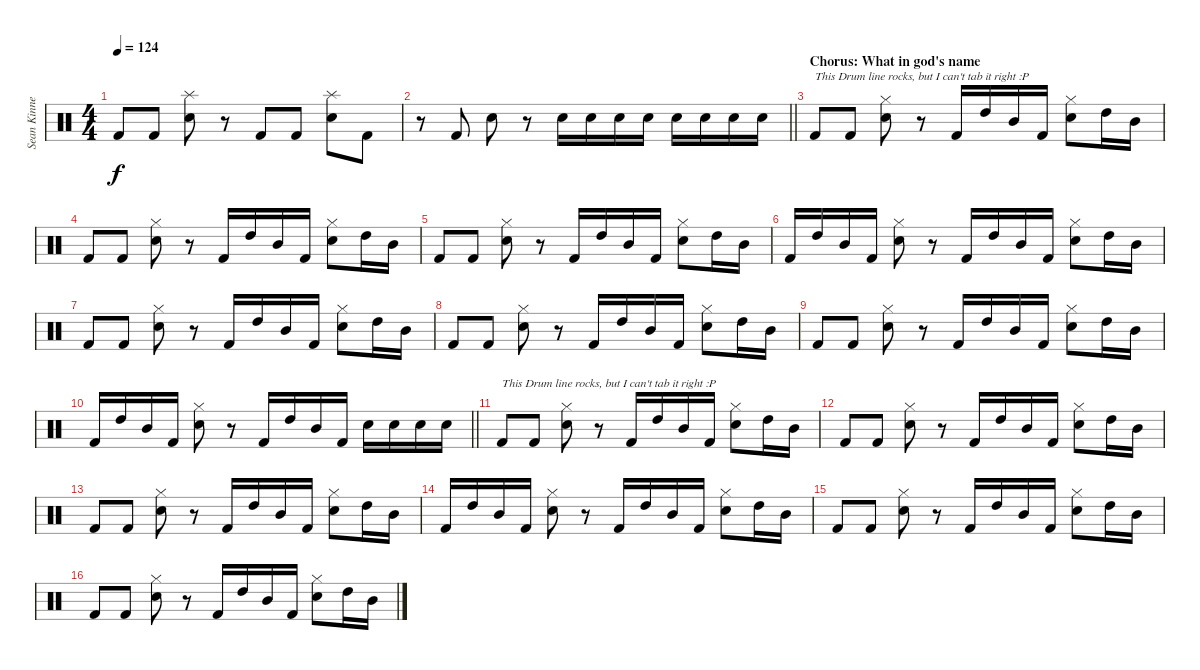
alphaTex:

\track ("Sean Kinney" "Sean Kinne") {instrument percussion}
\staff {score}
\articulation defaults
\ts (4 4)
\tempo 124
\clef neutral
\ks c "Kick (hit) 2".8{dy f} "Kick (hit) 2".8
("Splash (hit)" "Snare (hit) 2").8 r.8 "Kick (hit) 2".8 "Kick (hit) 2".8 ("Splash (hit)" "Snare (hit) 2").8 "Kick (hit) 2".8 |
\barLineRight lightlight
r.8 "Kick (hit) 2".8 "Snare (hit) 2".8 r.8 "Snare (hit) 2".16 "Snare (hit) 2".16 "Snare (hit) 2".16 "Snare (hit) 2".16 "Snare (hit) 2".16 "Snare (hit) 2".16 "Snare (hit) 2".16 "Snare (hit) 2".16 |
\section ("" "Chorus: What in god's name")
"Kick (hit) 2".8{txt "This Drum line rocks, but I can't tab it right :P"} "Kick (hit) 2".8 ("Hi-Hat (closed)" "Snare (hit) 2").8 r.8 "Kick (hit) 2".16 "High Tom (hit)".16 "Mid Tom (hit)".16 "Kick (hit) 2".16 ("Hi-Hat (closed)" "Snare (hit) 2").8 "High Tom (hit)".16 "Mid Tom (hit)".16 |
"Kick (hit) 2".8 "Kick (hit) 2".8 ("Hi-Hat (closed)" "Snare (hit) 2").8 r.8 "Kick (hit) 2".16 "High Tom (hit)".16 "Mid Tom (hit)".16 "Kick (hit) 2".16 ("Hi-Hat (closed)" "Snare (hit) 2").8 "High Tom (hit)".16 "Mid Tom (hit)".16 |
"Kick (hit) 2".8 "Kick (hit) 2".8 ("Hi-Hat (closed)" "Snare (hit) 2").8 r.8 "Kick (hit) 2".16 "High Tom (hit)".16 "Mid Tom (hit)".16 "Kick (hit) 2".16 ("Hi-Hat (closed)" "Snare (hit) 2").8 "High Tom (hit)".16 "Mid Tom (hit)".16 |
"Kick (hit) 2".16 "High Tom (hit)".16 "Mid Tom (hit)".16 "Kick (hit) 2".16 ("Hi-Hat (closed)" "Snare (hit) 2").8 r.8 "Kick (hit) 2".16 "High Tom (hit)".16 "Mid Tom (hit)".16 "Kick (hit) 2".16 ("Hi-Hat (closed)" "Snare (hit) 2").8 "High Tom (hit)".16 "Mid Tom (hit)".16 |
"Kick (hit) 2".8 "Kick (hit) 2".8 ("Hi-Hat (closed)" "Snare (hit) 2").8 r.8 "Kick (hit) 2".16 "High Tom (hit)".16 "Mid Tom (hit)".16 "Kick (hit) 2".16 ("Hi-Hat (closed)" "Snare (hit) 2").8 "High Tom (hit)".16 "Mid Tom (hit)".16 |
"Kick (hit) 2".8 "Kick (hit) 2".8 ("Hi-Hat (closed)" "Snare (hit) 2").8 r.8 "Kick (hit) 2".16 "High Tom (hit)".16 "Mid Tom (hit)".16 "Kick (hit) 2".16 ("Hi-Hat (closed)" "Snare (hit) 2").8 "High Tom (hit)".16 "Mid Tom (hit)".16 |
"Kick (hit) 2".8 "Kick (hit) 2".8 ("Hi-Hat (closed)" "Snare (hit) 2").8 r.8 "Kick (hit) 2".16 "High Tom (hit)".16 "Mid Tom (hit)".16 "Kick (hit) 2".16 ("Hi-Hat (closed)" "Snare (hit) 2").8 "High Tom (hit)".16 "Mid Tom (hit)".16 |
\barLineRight lightlight "Kick (hit) 2".16 "High Tom (hit)".16 "Mid Tom (hit)".16 "Kick (hit) 2".16
("Hi-Hat (closed)" "Snare (hit) 2").8 r.8 "Kick (hit) 2".16 "High Tom (hit)".16 "Mid Tom (hit)".16 "Kick (hit) 2".16 "Snare (hit) 2".16 "Snare (hit) 2".16 "Snare (hit) 2".16 "Snare (hit) 2".16 |
"Kick (hit) 2".8{txt "This Drum line rocks, but I can't tab it right :P"} "Kick (hit) 2".8 ("Hi-Hat (closed)" "Snare (hit) 2").8 r.8 "Kick (hit) 2".16 "High Tom (hit)".16 "Mid Tom (hit)".16 "Kick (hit) 2".16 ("Hi-Hat (closed)" "Snare (hit) 2").8 "High Tom (hit)".16 "Mid Tom (hit)".16 |
"Kick (hit) 2".8 "Kick (hit) 2".8 ("Hi-Hat (closed)" "Snare (hit) 2").8 r.8 "Kick (hit) 2".16 "High Tom (hit)".16 "Mid Tom (hit)".16 "Kick (hit) 2".16 ("Hi-Hat (closed)" "Snare (hit) 2").8 "High Tom (hit)".16 "Mid Tom (hit)".16 |
"Kick (hit) 2".8 "Kick (hit) 2".8 ("Hi-Hat (closed)" "Snare (hit) 2").8 r.8 "Kick (hit) 2".16 "High Tom (hit)".16 "Mid Tom (hit)".16 "Kick (hit) 2".16 ("Hi-Hat (closed)" "Snare (hit) 2").8 "High Tom (hit)".16 "Mid Tom (hit)".16 |
"Kick (hit) 2".16 "High Tom (hit)".16 "Mid Tom (hit)".16 "Kick (hit) 2".16 ("Hi-Hat (closed)" "Snare (hit) 2").8 r.8 "Kick (hit) 2".16 "High Tom (hit)".16 "Mid Tom (hit)".16 "Kick (hit) 2".16 ("Hi-Hat (closed)" "Snare (hit) 2").8 "High Tom (hit)".16 "Mid Tom (hit)".16 |
"Kick (hit) 2".8 "Kick (hit) 2".8 ("Hi-Hat (closed)" "Snare (hit) 2").8 r.8 "Kick (hit) 2".16 "High Tom (hit)".16 "Mid Tom (hit)".16 "Kick (hit) 2".16 ("Hi-Hat (closed)" "Snare (hit) 2").8 "High Tom (hit)".16 "Mid Tom (hit)".16 |
"Kick (hit) 2".8 "Kick (hit) 2".8 ("Hi-Hat (closed)" "Snare (hit) 2").8 r.8 "Kick (hit) 2".16 "High Tom (hit)".16 "Mid Tom (hit)".16 "Kick (hit) 2".16 ("Hi-Hat (closed)" "Snare (hit) 2").8 "High Tom (hit)".16 "Mid Tom (hit)".16
